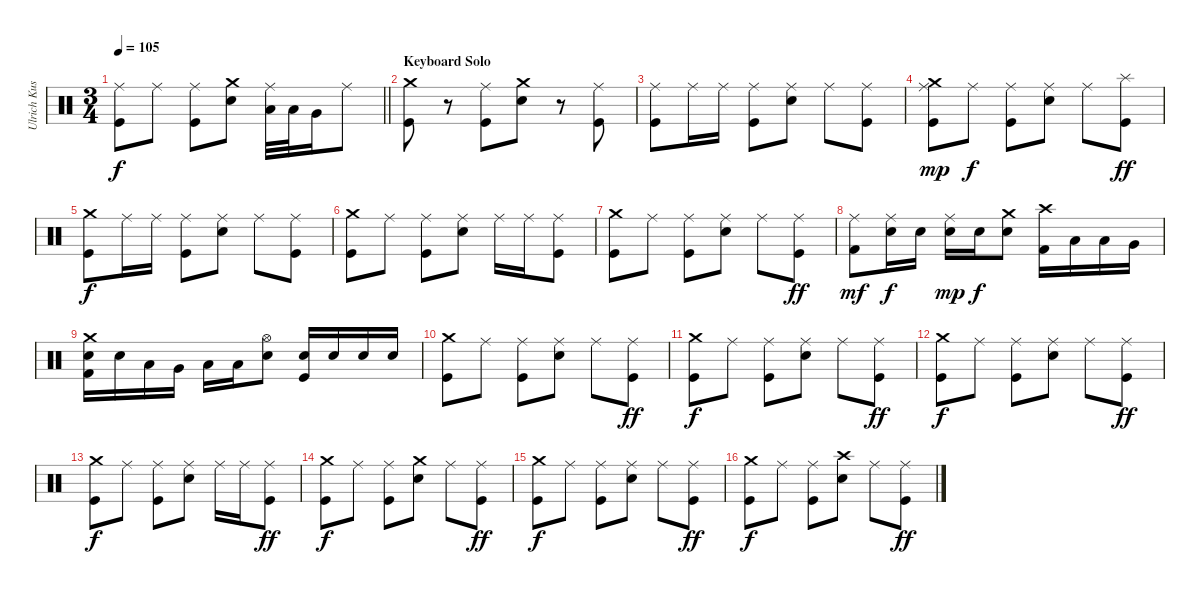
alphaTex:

\track ("Ulrich Kusch" "Ulrich Kus") {instrument percussion}
\staff {score}
\articulation defaults
\ts (3 4)
\tempo 105
\clef neutral
\barLineRight lightlight
\ks c
("Ride (middle)" "Kick (hit)").8{dy f} "Ride (middle)".8 ("Ride (middle)" "Kick (hit)").8 ("Crash medium (hit)" "Electric Snare (hit)").8 ("Ride (middle)" "Low Tom (hit)").32 "Low Tom (hit)".32 "Very Low Tom (hit)".16 "Ride (middle)".8 |
\section ("" "Keyboard Solo")
("Crash medium (hit)" "Kick (hit)").8 r.8 ("Ride (middle)" "Kick (hit)").8 ("Crash medium (hit)" "Electric Snare (hit)").8 r.8 ("Ride (middle)" "Kick (hit)").8 |
("Ride (middle)" "Kick (hit)").8 "Ride (middle)".16 "Ride (middle)".16 ("Ride (middle)" "Kick (hit)").8 ("Ride (middle)" "Electric Snare (hit)").8 "Ride (middle)".8 ("Ride (middle)" "Kick (hit)").8 |
("Ride (middle)" "Crash medium (hit)" "Kick (hit)").8{dy mp} "Ride (middle)".8{dy f} ("Ride (middle)" "Kick (hit)").8 ("Ride (middle)" "Electric Snare (hit)").8 "Ride (middle)".8 ("Splash (hit)" "Kick (hit)").8{dy ff} |
("Crash medium (hit)" "Kick (hit)").8{dy f} "Ride (middle)".16 "Ride (middle)".16 ("Ride (middle)" "Kick (hit)").8 ("Ride (middle)" "Electric Snare (hit)").8 "Ride (middle)".8 ("Ride (middle)" "Kick (hit)").8 |
("Crash medium (hit)" "Kick (hit)").8 "Ride (middle)".8 ("Ride (middle)" "Kick (hit)").8 ("Ride (middle)" "Electric Snare (hit)").8 "Ride (middle)".16 "Ride (middle)".16 ("Ride (middle)" "Kick (hit)").8 |
("Crash medium (hit)" "Kick (hit)").8 "Ride (middle)".8 ("Ride (middle)" "Kick (hit)").8 ("Ride (middle)" "Electric Snare (hit)").8 "Ride (middle)".8 ("Ride (middle)" "Kick (hit)").8{dy ff} |
("Ride (middle)" "Kick (hit) 2").8{dy mf} ("Ride (middle)" "Electric Snare (hit)").16{dy f} "Electric Snare (hit)".16 ("Ride (middle)" "Electric Snare (hit)").16{dy mp} "Electric Snare (hit)".16{dy f} ("Crash medium (hit)" "Electric Snare (hit)").8 ("Crash high (hit)" "Kick (hit) 2").16 "Low Tom (hit)".16 "Low Tom (hit)".16 "Very Low Tom (hit)".16 |
("Crash medium (hit)" "Electric Snare (hit)" "Kick (hit) 2").16 "Electric Snare (hit)".16 "Low Tom (hit)".16 "Very Low Tom (hit)".16 "Low Floor Tom (hit)".16 "Low Floor Tom (hit)".16 ("Hi-Hat (open)" "Electric Snare (hit)").8 ("Electric Snare (hit)" "Kick (hit)").16 "Electric Snare (hit)".16 "Electric Snare (hit)".16 "Electric Snare (hit)".16 |
("Crash medium (hit)" "Kick (hit)").8 "Ride (middle)".8 ("Ride (middle)" "Kick (hit)").8 ("Ride (middle)" "Electric Snare (hit)").8 "Ride (middle)".8 ("Ride (middle)" "Kick (hit)").8{dy ff} |
("Crash medium (hit)" "Kick (hit)").8{dy f} "Ride (middle)".8 ("Ride (middle)" "Kick (hit)").8 ("Ride (middle)" "Electric Snare (hit)").8 "Ride (middle)".8 ("Ride (middle)" "Kick (hit)").8{dy ff} |
("Crash medium (hit)" "Kick (hit)").8{dy f} "Ride (middle)".8 ("Ride (middle)" "Kick (hit)").8 ("Ride (middle)" "Electric Snare (hit)").8 "Ride (middle)".8 ("Ride (middle)" "Kick (hit)").8{dy ff} |
("Crash medium (hit)" "Kick (hit)").8{dy f} "Ride (middle)".8 ("Ride (middle)" "Kick (hit)").8 ("Ride (middle)" "Electric Snare (hit)").8 "Ride (middle)".16 "Ride (middle)".16 ("Ride (middle)" "Kick (hit)").8{dy ff} |
("Crash medium (hit)" "Kick (hit)").8{dy f} "Ride (middle)".8 ("Ride (middle)" "Kick (hit)").8 ("Crash medium (hit)" "Electric Snare (hit)").8 "Ride (middle)".8 ("Ride (middle)" "Kick (hit)").8{dy ff} |
("Crash medium (hit)" "Kick (hit)").8{dy f} "Ride (middle)".8 ("Ride (middle)" "Kick (hit)").8 ("Ride (middle)" "Electric Snare (hit)").8 "Ride (middle)".8 ("Ride (middle)" "Kick (hit)").8{dy ff} |
("Crash medium (hit)" "Kick (hit)").8{dy f} "Ride (middle)".8 ("Ride (middle)" "Kick (hit)").8 ("Crash high (hit)" "Electric Snare (hit)").8 "Ride (middle)".8 ("Ride (middle)" "Kick (hit)").8{dy ff}
